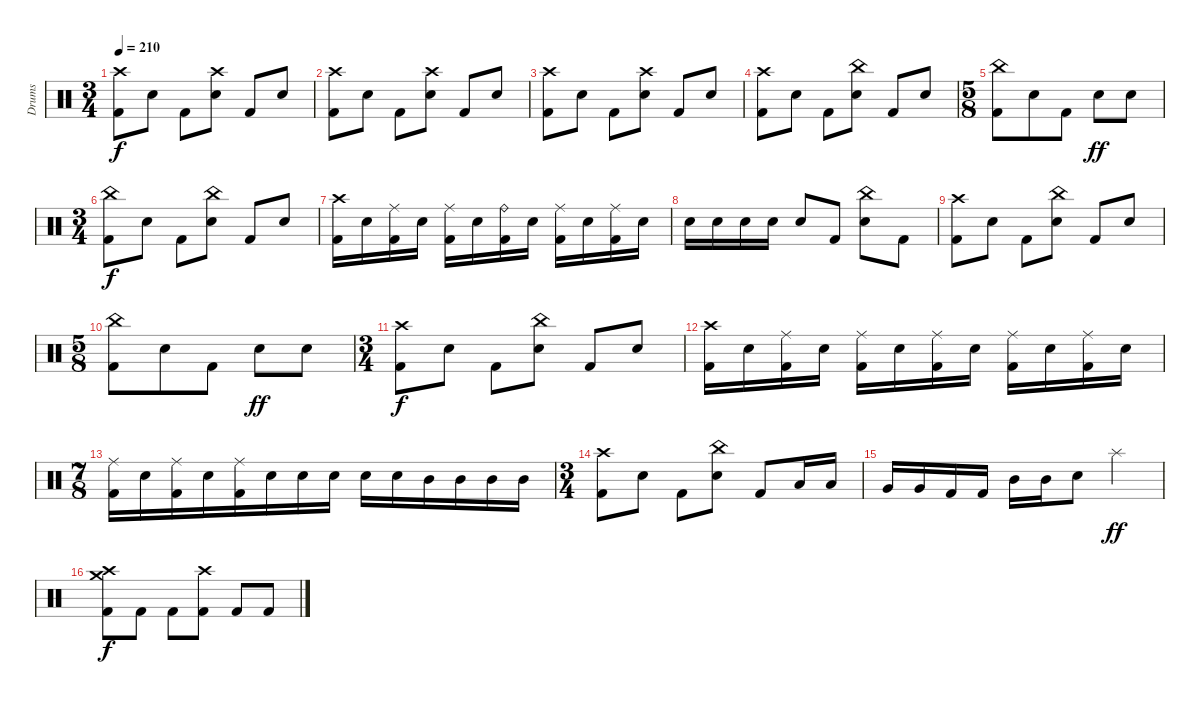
\track ("Drums" "Drums") {instrument percussion}
\staff {score}
\articulation defaults
\ts (3 4)
\tempo 210
\clef neutral
\ks c
("Crash high (hit)" "Kick (hit) 2").8{dy f} "Electric Snare (hit)".8 "Kick (hit) 2".8 ("Crash high (hit)" "Electric Snare (hit)").8 "Kick (hit) 2".8 "Electric Snare (hit)".8 |
("Crash high (hit)" "Kick (hit) 2").8 "Electric Snare (hit)".8 "Kick (hit) 2".8 ("Crash high (hit)" "Electric Snare (hit)").8 "Kick (hit) 2".8 "Electric Snare (hit)".8 |
("Crash high (hit)" "Kick (hit) 2").8 "Electric Snare (hit)".8 "Kick (hit) 2".8 ("Crash high (hit)" "Electric Snare (hit)").8 "Kick (hit) 2".8 "Electric Snare (hit)".8 |
("Crash high (hit)" "Kick (hit) 2").8 "Electric Snare (hit)".8 "Kick (hit) 2".8 ("China (hit)" "Electric Snare (hit)").8 "Kick (hit) 2".8 "Electric Snare (hit)".8 |
\ts (5 8)
("China (hit)" "Kick (hit) 2").8 "Electric Snare (hit)".8 "Kick (hit) 2".8 "Electric Snare (hit)".8{dy ff} "Electric Snare (hit)".8 |
\ts (3 4)
("China (hit)" "Kick (hit) 2").8{dy f} "Electric Snare (hit)".8 "Kick (hit) 2".8 ("China (hit)" "Electric Snare (hit)").8 "Kick (hit) 2".8 "Electric Snare (hit)".8 |
("Crash high (hit)" "Kick (hit) 2").16 "Electric Snare (hit)".16 ("Ride (middle)" "Kick (hit) 2").16 "Electric Snare (hit)".16 ("Ride (middle)" "Kick (hit) 2").16 "Electric Snare (hit)".16 ("Ride (bell)" "Kick (hit) 2").16 "Electric Snare (hit)".16 ("Ride (middle)" "Kick (hit) 2").16 "Electric Snare (hit)".16 ("Ride (middle)" "Kick (hit) 2").16 "Electric Snare (hit)".16 |
"Electric Snare (hit)".16 "Electric Snare (hit)".16 "Electric Snare (hit)".16 "Electric Snare (hit)".16 "Electric Snare (hit)".8 "Kick (hit) 2".8 ("China (hit)" "Electric Snare (hit)").8 "Kick (hit) 2".8 |
("Crash high (hit)" "Kick (hit) 2").8 "Electric Snare (hit)".8 "Kick (hit) 2".8 ("China (hit)" "Electric Snare (hit)").8 "Kick (hit) 2".8 "Electric Snare (hit)".8 |
\ts (5 8)
("China (hit)" "Kick (hit) 2").8 "Electric Snare (hit)".8 "Kick (hit) 2".8 "Electric Snare (hit)".8{dy ff} "Electric Snare (hit)".8 |
\ts (3 4)
("Crash high (hit)" "Kick (hit) 2").8{dy f} "Electric Snare (hit)".8 "Kick (hit) 2".8 ("China (hit)" "Electric Snare (hit)").8 "Kick (hit) 2".8 "Electric Snare (hit)".8 |
("Crash high (hit)" "Kick (hit) 2").16 "Electric Snare (hit)".16 ("Ride (middle)" "Kick (hit) 2").16 "Electric Snare (hit)".16 ("Ride (middle)" "Kick (hit) 2").16 "Electric Snare (hit)".16 ("Ride (middle)" "Kick (hit) 2").16 "Electric Snare (hit)".16 ("Ride (middle)" "Kick (hit) 2").16 "Electric Snare (hit)".16 ("Ride (middle)" "Kick (hit) 2").16 "Electric Snare (hit)".16 |
\ts (7 8)
("Ride (middle)" "Kick (hit) 2").16 "Electric Snare (hit)".16 ("Ride (middle)" "Kick (hit) 2").16 "Electric Snare (hit)".16 ("Ride (middle)" "Kick (hit) 2").16 "Electric Snare (hit)".16 "Electric Snare (hit)".16 "Electric Snare (hit)".16 "Electric Snare (hit)".16 "Electric Snare (hit)".16 "Mid Tom (hit)".16 "Mid Tom (hit)".16 "Mid Tom (hit)".16 "Mid Tom (hit)".16 |
\ts (3 4)
("Crash high (hit)" "Kick (hit) 2").8 "Electric Snare (hit)".8 "Kick (hit) 2".8 ("China (hit)" "Electric Snare (hit)").8 "Kick (hit) 2".8 "Low Tom (hit)".16 "Low Tom (hit)".16 |
"Very Low Tom (hit)".16 "Very Low Tom (hit)".16 "Kick (hit) 2".16 "Kick (hit) 2".16 "Mid Tom (hit)".16 "Mid Tom (hit)".16 "Electric Snare (hit)".8 "Splash (hit)".4{dy ff} |
("Crash high (hit)" "Crash medium (hit)" "Kick (hit) 2").8{dy f} "Kick (hit) 2".8 "Kick (hit) 2".8 ("Crash high (hit)" "Kick (hit) 2").8 "Kick (hit) 2".8 "Kick (hit) 2".8
